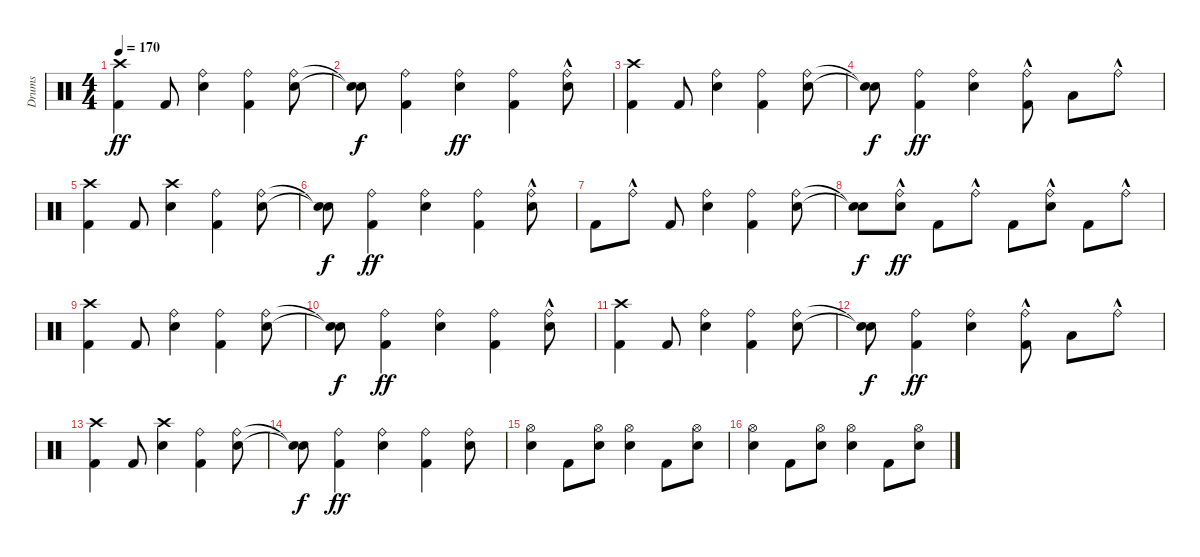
\track ("Drums" "Drums") {instrument percussion}
\staff {score}
\articulation defaults
\ts (4 4)
\tempo 170
\clef neutral
\ks c
("Kick (hit) 2" "Crash high (hit)").4{dy ff} "Kick (hit) 2".8 ("Snare (hit) 2" "Ride (bell)").4 ("Kick (hit) 2" "Ride (bell)").4 ("Snare (hit) 2" "Ride (bell)").8 |
("Snare (hit)"{t} "Snare (hit)"{t}).8{dy f} ("Kick (hit) 2" "Ride (bell)").4 ("Snare (hit) 2" "Ride (bell)").4{dy ff} ("Kick (hit) 2" "Ride (bell)").4 ("Snare (hit) 2" "Ride (bell)"{hac}).8 |
("Kick (hit) 2" "Crash high (hit)").4 "Kick (hit) 2".8 ("Snare (hit) 2" "Ride (bell)").4 ("Kick (hit) 2" "Ride (bell)").4 ("Snare (hit) 2" "Ride (bell)").8 |
("Snare (hit)"{t} "Snare (hit)"{t}).8{dy f} ("Kick (hit) 2" "Ride (bell)").4{dy ff} ("Snare (hit) 2" "Ride (bell)").4 ("Kick (hit) 2" "Ride (bell)"{hac}).8 "Low Floor Tom (hit)".8 "Ride (bell)"{hac}.8 |
("Kick (hit) 2" "Crash high (hit)").4 "Kick (hit) 2".8 ("Snare (hit) 2" "Crash high (hit)").4 ("Kick (hit) 2" "Ride (bell)").4 ("Snare (hit) 2" "Ride (bell)").8 |
("Snare (hit)"{t} "Snare (hit)"{t}).8{dy f} ("Kick (hit) 2" "Ride (bell)").4{dy ff} ("Snare (hit) 2" "Ride (bell)").4 ("Kick (hit) 2" "Ride (bell)").4 ("Snare (hit) 2" "Ride (bell)"{hac}).8 |
"Kick (hit) 2".8 "Ride (bell)"{hac}.8 "Kick (hit) 2".8 ("Snare (hit) 2" "Ride (bell)").4 ("Kick (hit) 2" "Ride (bell)").4 ("Snare (hit) 2" "Ride (bell)").8 |
("Snare (hit)"{t} "Snare (hit)"{t}).8{dy f} ("Snare (hit) 2" "Ride (bell)"{hac}).8{dy ff} "Kick (hit) 2".8 "Ride (bell)"{hac}.8 "Kick (hit) 2".8 ("Snare (hit) 2" "Ride (bell)"{hac}).8 "Kick (hit) 2".8 "Ride (bell)"{hac}.8 |
("Kick (hit) 2" "Crash high (hit)").4 "Kick (hit) 2".8 ("Snare (hit) 2" "Ride (bell)").4 ("Kick (hit) 2" "Ride (bell)").4 ("Snare (hit) 2" "Ride (bell)").8 |
("Snare (hit)"{t} "Snare (hit)"{t}).8{dy f} ("Kick (hit) 2" "Ride (bell)").4{dy ff} ("Snare (hit) 2" "Ride (bell)").4 ("Kick (hit) 2" "Ride (bell)").4 ("Snare (hit) 2" "Ride (bell)"{hac}).8 |
("Kick (hit) 2" "Crash high (hit)").4 "Kick (hit) 2".8 ("Snare (hit) 2" "Ride (bell)").4 ("Kick (hit) 2" "Ride (bell)").4 ("Snare (hit) 2" "Ride (bell)").8 |
("Snare (hit)"{t} "Snare (hit)"{t}).8{dy f} ("Kick (hit) 2" "Ride (bell)").4{dy ff} ("Snare (hit) 2" "Ride (bell)").4 ("Kick (hit) 2" "Ride (bell)"{hac}).8 "Low Floor Tom (hit)".8 "Ride (bell)"{hac}.8 |
("Kick (hit) 2" "Crash high (hit)").4 "Kick (hit) 2".8 ("Snare (hit) 2" "Crash high (hit)").4 ("Kick (hit) 2" "Ride (bell)").4 ("Snare (hit) 2" "Ride (bell)").8 |
("Snare (hit)"{t} "Snare (hit)"{t}).8{dy f} ("Kick (hit) 2" "Ride (bell)").4{dy ff} ("Snare (hit) 2" "Ride (bell)").4 ("Kick (hit) 2" "Ride (bell)").4 ("Snare (hit) 2" "Ride (bell)").8 |
("Snare (hit) 2" "Hi-Hat (open)").4 "Kick (hit) 2".8 ("Snare (hit) 2" "Hi-Hat (open)").8 ("Snare (hit) 2" "Hi-Hat (open)").4 "Kick (hit) 2".8 ("Snare (hit) 2" "Hi-Hat (open)").8 |
("Snare (hit) 2" "Hi-Hat (open)").4 "Kick (hit) 2".8 ("Snare (hit) 2" "Hi-Hat (open)").8 ("Snare (hit) 2" "Hi-Hat (open)").4 "Kick (hit) 2".8 ("Snare (hit) 2" "Hi-Hat (open)").8
